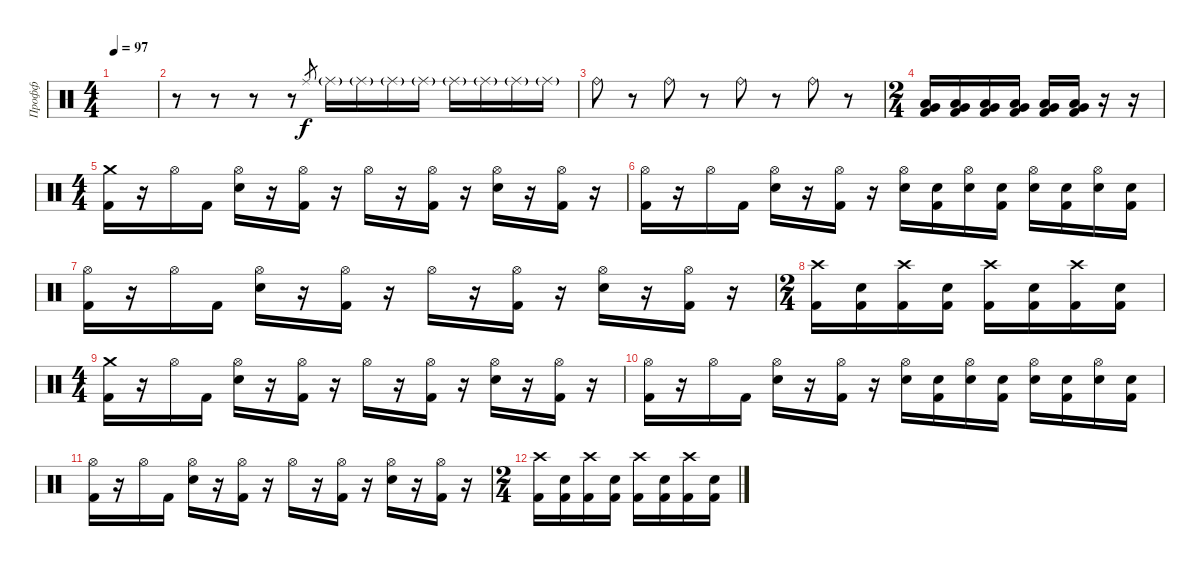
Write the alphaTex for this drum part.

\track ("Профф" "Профф") {instrument percussion}
\staff {score}
\articulation defaults
\ts (4 4)
\tempo 97
\clef neutral
\ks c
|
r.8 r.8 r.8 r.8 "Ride (middle)".8{gr} "Ride (middle)"{g}.16 "Ride (middle)"{g}.16 "Ride (middle)"{g}.16 "Ride (middle)"{g}.16 "Ride (middle)"{g}.16 "Ride (middle)"{g}.16 "Ride (middle)"{g}.16 "Ride (middle)"{g}.16 |
"Ride (bell)".8{dy f} r.8 "Ride (bell)".8 r.8 "Ride (bell)".8 r.8 "Ride (bell)".8 r.8 |
\ts (2 4)
("Very Low Tom (hit)" "Low Floor Tom (hit)" "Kick (hit) 2").16 ("Very Low Tom (hit)" "Low Floor Tom (hit)" "Kick (hit) 2").16 ("Very Low Tom (hit)" "Low Floor Tom (hit)" "Kick (hit) 2").16 ("Very Low Tom (hit)" "Low Floor Tom (hit)" "Kick (hit) 2").16 ("Very Low Tom (hit)" "Low Floor Tom (hit)" "Kick (hit) 2").16 ("Very Low Tom (hit)" "Low Floor Tom (hit)" "Kick (hit) 2").16 r.16 r.16 |
\ts (4 4)
("Crash medium (hit)" "Kick (hit) 2").16 r.16 "Hi-Hat (open)".16 "Kick (hit) 2".16 ("Hi-Hat (open)" "Electric Snare (hit)").16 r.16 ("Hi-Hat (open)" "Kick (hit) 2").16 r.16 "Hi-Hat (open)".16 r.16 ("Hi-Hat (open)" "Kick (hit) 2").16 r.16 ("Hi-Hat (open)" "Electric Snare (hit)").16 r.16 ("Hi-Hat (open)" "Kick (hit) 2").16 r.16 |
("Hi-Hat (open)" "Kick (hit) 2").16 r.16 "Hi-Hat (open)".16 "Kick (hit) 2".16 ("Hi-Hat (open)" "Electric Snare (hit)").16 r.16 ("Hi-Hat (open)" "Kick (hit) 2").16 r.16 ("Hi-Hat (open)" "Electric Snare (hit)").16 ("Electric Snare (hit)" "Kick (hit) 2").16 ("Hi-Hat (open)" "Electric Snare (hit)").16 ("Electric Snare (hit)" "Kick (hit) 2").16 ("Hi-Hat (open)" "Electric Snare (hit)").16 ("Electric Snare (hit)" "Kick (hit) 2").16 ("Hi-Hat (open)" "Electric Snare (hit)").16 ("Electric Snare (hit)" "Kick (hit) 2").16 |
("Hi-Hat (open)" "Kick (hit) 2").16 r.16 "Hi-Hat (open)".16 "Kick (hit) 2".16 ("Hi-Hat (open)" "Electric Snare (hit)").16 r.16 ("Hi-Hat (open)" "Kick (hit) 2").16 r.16 "Hi-Hat (open)".16 r.16 ("Hi-Hat (open)" "Kick (hit) 2").16 r.16 ("Hi-Hat (open)" "Electric Snare (hit)").16 r.16 ("Hi-Hat (open)" "Kick (hit) 2").16 r.16 |
\ts (2 4)
("Crash high (hit)" "Kick (hit) 2").16 ("Electric Snare (hit)" "Kick (hit) 2").16 ("Crash high (hit)" "Kick (hit) 2").16 ("Electric Snare (hit)" "Kick (hit) 2").16 ("Crash high (hit)" "Kick (hit) 2").16 ("Electric Snare (hit)" "Kick (hit) 2").16 ("Crash high (hit)" "Kick (hit) 2").16 ("Electric Snare (hit)" "Kick (hit) 2").16 |
\ts (4 4)
("Crash medium (hit)" "Kick (hit) 2").16 r.16 "Hi-Hat (open)".16 "Kick (hit) 2".16 ("Hi-Hat (open)" "Electric Snare (hit)").16 r.16 ("Hi-Hat (open)" "Kick (hit) 2").16 r.16 "Hi-Hat (open)".16 r.16 ("Hi-Hat (open)" "Kick (hit) 2").16 r.16 ("Hi-Hat (open)" "Electric Snare (hit)").16 r.16 ("Hi-Hat (open)" "Kick (hit) 2").16 r.16 |
("Hi-Hat (open)" "Kick (hit) 2").16 r.16 "Hi-Hat (open)".16 "Kick (hit) 2".16 ("Hi-Hat (open)" "Electric Snare (hit)").16 r.16 ("Hi-Hat (open)" "Kick (hit) 2").16 r.16 ("Hi-Hat (open)" "Electric Snare (hit)").16 ("Electric Snare (hit)" "Kick (hit) 2").16 ("Hi-Hat (open)" "Electric Snare (hit)").16 ("Electric Snare (hit)" "Kick (hit) 2").16 ("Hi-Hat (open)" "Electric Snare (hit)").16 ("Electric Snare (hit)" "Kick (hit) 2").16 ("Hi-Hat (open)" "Electric Snare (hit)").16 ("Electric Snare (hit)" "Kick (hit) 2").16 |
("Hi-Hat (open)" "Kick (hit) 2").16 r.16 "Hi-Hat (open)".16 "Kick (hit) 2".16 ("Hi-Hat (open)" "Electric Snare (hit)").16 r.16 ("Hi-Hat (open)" "Kick (hit) 2").16 r.16 "Hi-Hat (open)".16 r.16 ("Hi-Hat (open)" "Kick (hit) 2").16 r.16 ("Hi-Hat (open)" "Electric Snare (hit)").16 r.16 ("Hi-Hat (open)" "Kick (hit) 2").16 r.16 |
\ts (2 4)
("Crash high (hit)" "Kick (hit) 2").16 ("Electric Snare (hit)" "Kick (hit) 2").16 ("Crash high (hit)" "Kick (hit) 2").16 ("Electric Snare (hit)" "Kick (hit) 2").16 ("Crash high (hit)" "Kick (hit) 2").16 ("Electric Snare (hit)" "Kick (hit) 2").16 ("Crash high (hit)" "Kick (hit) 2").16 ("Electric Snare (hit)" "Kick (hit) 2").16
